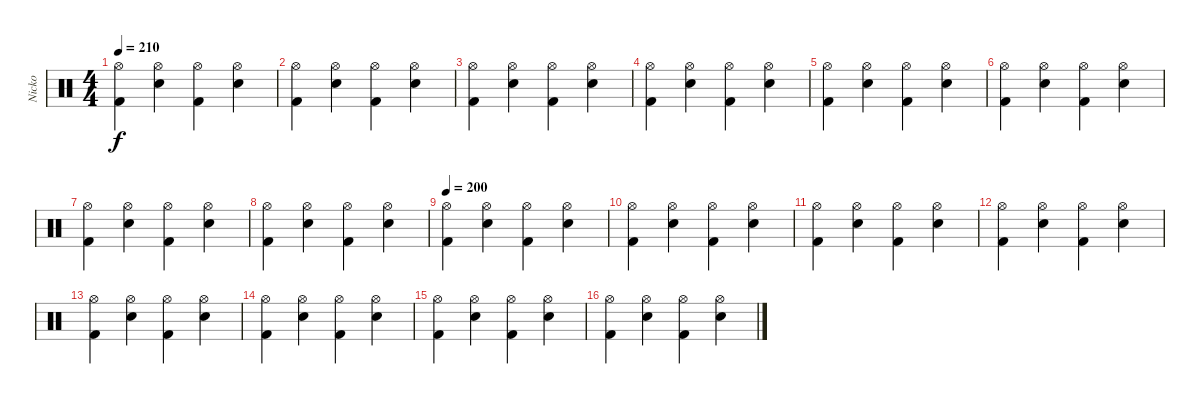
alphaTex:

\track ("Nicko" "Nicko") {instrument percussion}
\staff {score}
\articulation defaults
\ts (4 4)
\tempo 210
\clef neutral
\ks c
("Hi-Hat (open)" "Kick (hit) 2").4{dy f} ("Hi-Hat (open)" "Electric Snare (hit)").4 ("Hi-Hat (open)" "Kick (hit) 2").4 ("Hi-Hat (open)" "Electric Snare (hit)").4 |
("Hi-Hat (open)" "Kick (hit) 2").4 ("Hi-Hat (open)" "Electric Snare (hit)").4 ("Hi-Hat (open)" "Kick (hit) 2").4 ("Hi-Hat (open)" "Electric Snare (hit)").4 |
("Hi-Hat (open)" "Kick (hit) 2").4 ("Hi-Hat (open)" "Electric Snare (hit)").4 ("Hi-Hat (open)" "Kick (hit) 2").4 ("Hi-Hat (open)" "Electric Snare (hit)").4 |
("Hi-Hat (open)" "Kick (hit) 2").4 ("Hi-Hat (open)" "Electric Snare (hit)").4 ("Hi-Hat (open)" "Kick (hit) 2").4 ("Hi-Hat (open)" "Electric Snare (hit)").4 |
("Hi-Hat (open)" "Kick (hit) 2").4 ("Hi-Hat (open)" "Electric Snare (hit)").4 ("Hi-Hat (open)" "Kick (hit) 2").4 ("Hi-Hat (open)" "Electric Snare (hit)").4 |
("Hi-Hat (open)" "Kick (hit) 2").4 ("Hi-Hat (open)" "Electric Snare (hit)").4 ("Hi-Hat (open)" "Kick (hit) 2").4 ("Hi-Hat (open)" "Electric Snare (hit)").4 |
("Hi-Hat (open)" "Kick (hit) 2").4 ("Hi-Hat (open)" "Electric Snare (hit)").4 ("Hi-Hat (open)" "Kick (hit) 2").4 ("Hi-Hat (open)" "Electric Snare (hit)").4 |
("Hi-Hat (open)" "Kick (hit) 2").4 ("Hi-Hat (open)" "Electric Snare (hit)").4 ("Hi-Hat (open)" "Kick (hit) 2").4 ("Hi-Hat (open)" "Electric Snare (hit)").4 |
\tempo 200
("Hi-Hat (open)" "Kick (hit) 2").4 ("Hi-Hat (open)" "Electric Snare (hit)").4 ("Hi-Hat (open)" "Kick (hit) 2").4 ("Hi-Hat (open)" "Electric Snare (hit)").4 |
("Hi-Hat (open)" "Kick (hit) 2").4 ("Hi-Hat (open)" "Electric Snare (hit)").4 ("Hi-Hat (open)" "Kick (hit) 2").4 ("Hi-Hat (open)" "Electric Snare (hit)").4 |
("Hi-Hat (open)" "Kick (hit) 2").4 ("Hi-Hat (open)" "Electric Snare (hit)").4 ("Hi-Hat (open)" "Kick (hit) 2").4 ("Hi-Hat (open)" "Electric Snare (hit)").4 |
("Hi-Hat (open)" "Kick (hit) 2").4 ("Hi-Hat (open)" "Electric Snare (hit)").4 ("Hi-Hat (open)" "Kick (hit) 2").4 ("Hi-Hat (open)" "Electric Snare (hit)").4 |
("Hi-Hat (open)" "Kick (hit) 2").4 ("Hi-Hat (open)" "Electric Snare (hit)").4 ("Hi-Hat (open)" "Kick (hit) 2").4 ("Hi-Hat (open)" "Electric Snare (hit)").4 |
("Hi-Hat (open)" "Kick (hit) 2").4 ("Hi-Hat (open)" "Electric Snare (hit)").4 ("Hi-Hat (open)" "Kick (hit) 2").4 ("Hi-Hat (open)" "Electric Snare (hit)").4 |
("Hi-Hat (open)" "Kick (hit) 2").4 ("Hi-Hat (open)" "Electric Snare (hit)").4 ("Hi-Hat (open)" "Kick (hit) 2").4 ("Hi-Hat (open)" "Electric Snare (hit)").4 |
("Hi-Hat (open)" "Kick (hit) 2").4 ("Hi-Hat (open)" "Electric Snare (hit)").4 ("Hi-Hat (open)" "Kick (hit) 2").4 ("Hi-Hat (open)" "Electric Snare (hit)").4
